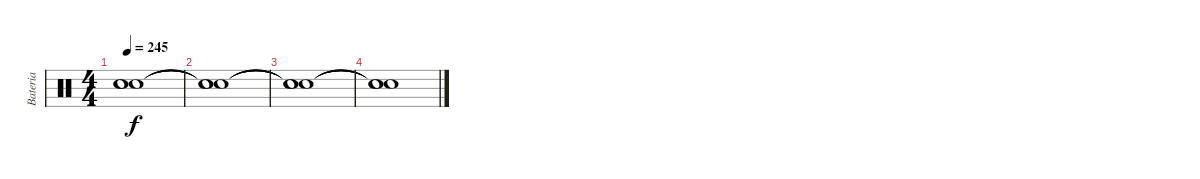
\track ("Bateria" "Bateria") {instrument percussion}
\staff {score}
\articulation defaults
\ts (4 4)
\tempo 245
\clef neutral
\ks c
("Snare (hit)"{t} "Snare (hit)"{t} "Snare (hit)"{t}).1{dy f} |
("Snare (hit)"{t} "Snare (hit)"{t} "Snare (hit)"{t}).1 |
("Snare (hit)"{t} "Snare (hit)"{t} "Snare (hit)"{t}).1 |
("Snare (hit)"{t} "Snare (hit)"{t} "Snare (hit)"{t}).1
